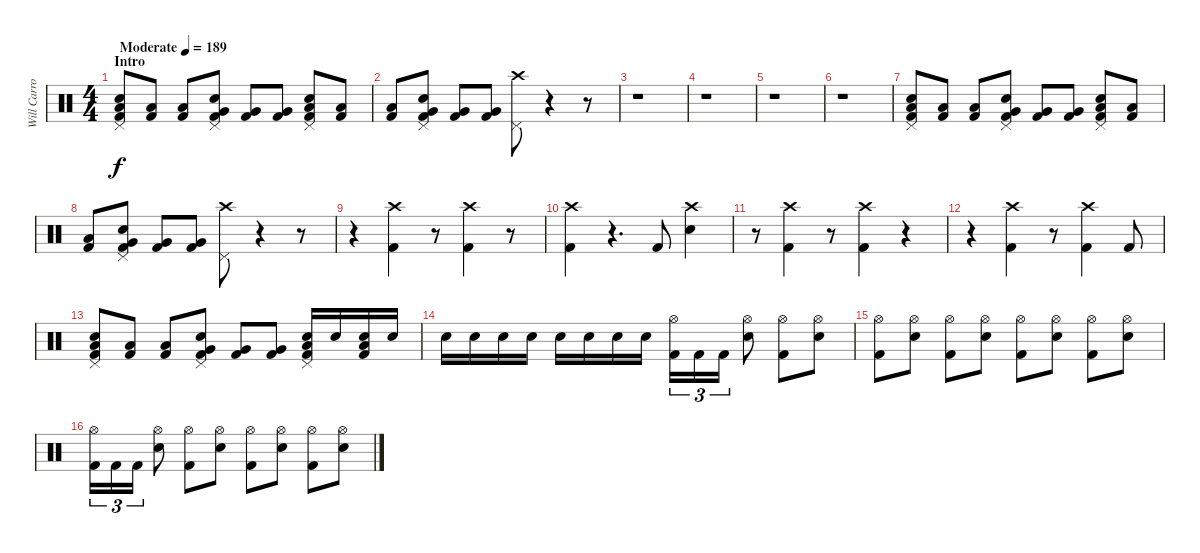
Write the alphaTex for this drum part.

\track ("Will Carroll" "Will Carro") {instrument percussion}
\staff {score}
\articulation defaults
\ts (4 4)
\section ("" "Intro")
\tempo (189 "Moderate")
\clef neutral
\ks c
("Pedal Hi-Hat (hit)" "Low Floor Tom (hit)" "Electric Snare (hit)" "Kick (hit) 2").8{dy f} ("Low Floor Tom (hit)" "Kick (hit) 2").8 ("Low Floor Tom (hit)" "Kick (hit) 2").8 ("Pedal Hi-Hat (hit)" "Very Low Tom (hit)" "Electric Snare (hit)" "Kick (hit) 2").8 ("Very Low Tom (hit)" "Kick (hit) 2").8 ("Very Low Tom (hit)" "Kick (hit) 2").8 ("Pedal Hi-Hat (hit)" "Low Floor Tom (hit)" "Electric Snare (hit)" "Kick (hit) 2").8 ("Low Floor Tom (hit)" "Kick (hit) 2").8 |
("Low Floor Tom (hit)" "Kick (hit) 2").8 ("Pedal Hi-Hat (hit)" "Very Low Tom (hit)" "Electric Snare (hit)" "Kick (hit) 2").8 ("Very Low Tom (hit)" "Kick (hit) 2").8 ("Very Low Tom (hit)" "Kick (hit) 2").8 ("Crash high (hit)" "Pedal Hi-Hat (hit)").8 r.4 r.8 |
r.1 |
r.1 |
r.1 |
r.1 |
("Pedal Hi-Hat (hit)" "Low Floor Tom (hit)" "Electric Snare (hit)" "Kick (hit) 2").8 ("Low Floor Tom (hit)" "Kick (hit) 2").8 ("Low Floor Tom (hit)" "Kick (hit) 2").8 ("Pedal Hi-Hat (hit)" "Very Low Tom (hit)" "Electric Snare (hit)" "Kick (hit) 2").8 ("Very Low Tom (hit)" "Kick (hit) 2").8 ("Very Low Tom (hit)" "Kick (hit) 2").8 ("Pedal Hi-Hat (hit)" "Low Floor Tom (hit)" "Electric Snare (hit)" "Kick (hit) 2").8 ("Low Floor Tom (hit)" "Kick (hit) 2").8 |
("Low Floor Tom (hit)" "Kick (hit) 2").8 ("Pedal Hi-Hat (hit)" "Very Low Tom (hit)" "Electric Snare (hit)" "Kick (hit) 2").8 ("Very Low Tom (hit)" "Kick (hit) 2").8 ("Very Low Tom (hit)" "Kick (hit) 2").8 ("Crash high (hit)" "Pedal Hi-Hat (hit)").8 r.4 r.8 |
r.4 ("Crash high (hit)" "Kick (hit) 2").4 r.8 ("Crash high (hit)" "Kick (hit) 2").4 r.8 |
("Crash high (hit)" "Kick (hit) 2").4 r.4{d} "Kick (hit) 2".8 ("Crash high (hit)" "Electric Snare (hit)").4 |
r.8 ("Crash high (hit)" "Kick (hit) 2").4 r.8 ("Crash high (hit)" "Kick (hit) 2").4 r.4 |
r.4 ("Crash high (hit)" "Kick (hit) 2").4 r.8 ("Crash high (hit)" "Kick (hit) 2").4 "Kick (hit) 2".8 |
("Pedal Hi-Hat (hit)" "Low Floor Tom (hit)" "Electric Snare (hit)" "Kick (hit) 2").8 ("Low Floor Tom (hit)" "Kick (hit) 2").8 ("Low Floor Tom (hit)" "Kick (hit) 2").8 ("Pedal Hi-Hat (hit)" "Very Low Tom (hit)" "Electric Snare (hit)" "Kick (hit) 2").8 ("Very Low Tom (hit)" "Kick (hit) 2").8 ("Very Low Tom (hit)" "Kick (hit) 2").8 ("Pedal Hi-Hat (hit)" "Low Floor Tom (hit)" "Electric Snare (hit)" "Kick (hit) 2").16 "Electric Snare (hit)".16 ("Low Floor Tom (hit)" "Electric Snare (hit)" "Kick (hit) 2").16 "Electric Snare (hit)".16 |
"Electric Snare (hit)".16 "Electric Snare (hit)".16 "Electric Snare (hit)".16 "Electric Snare (hit)".16 "Electric Snare (hit)".16 "Electric Snare (hit)".16 "Electric Snare (hit)".16 "Electric Snare (hit)".16 ("Hi-Hat (open)" "Kick (hit) 2").16{tu (3 2)} "Kick (hit) 2".16{tu (3 2)} "Kick (hit) 2".16{tu (3 2)} ("Hi-Hat (open)" "Electric Snare (hit)").8 ("Hi-Hat (open)" "Kick (hit) 2").8 ("Hi-Hat (open)" "Electric Snare (hit)").8 |
("Hi-Hat (open)" "Kick (hit) 2").8 ("Hi-Hat (open)" "Electric Snare (hit)").8 ("Hi-Hat (open)" "Kick (hit) 2").8 ("Hi-Hat (open)" "Electric Snare (hit)").8 ("Hi-Hat (open)" "Kick (hit) 2").8 ("Hi-Hat (open)" "Electric Snare (hit)").8 ("Hi-Hat (open)" "Kick (hit) 2").8 ("Hi-Hat (open)" "Electric Snare (hit)").8 |
("Hi-Hat (open)" "Kick (hit) 2").16{tu (3 2)} "Kick (hit) 2".16{tu (3 2)} "Kick (hit) 2".16{tu (3 2)} ("Hi-Hat (open)" "Electric Snare (hit)").8 ("Hi-Hat (open)" "Kick (hit) 2").8 ("Hi-Hat (open)" "Electric Snare (hit)").8 ("Hi-Hat (open)" "Kick (hit) 2").8 ("Hi-Hat (open)" "Electric Snare (hit)").8 ("Hi-Hat (open)" "Kick (hit) 2").8 ("Hi-Hat (open)" "Electric Snare (hit)").8
